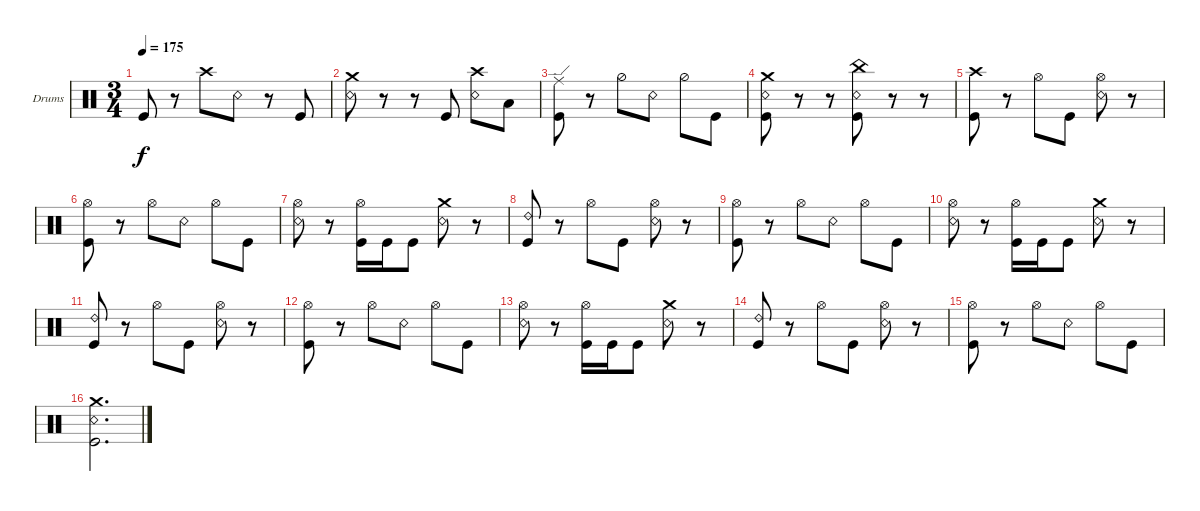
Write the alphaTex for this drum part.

\bracketExtendMode groupsimilarinstruments
\firstSystemTrackNameOrientation horizontal
\otherSystemsTrackNameOrientation horizontal
\track ("Drumkit" "Drums") {instrument percussion}
\staff {score}
\articulation defaults
\ts (3 4)
\tempo 175
\clef neutral
\ks c "Kick (hit)".8{dy f}
r.8 "Crash high (hit)".8 "Snare (rim shot)".8 r.8 "Kick (hit)".8 |
("Snare (rim shot)" "Crash medium (hit)").8 r.8 r.8 "Kick (hit)".8 ("Snare (rim shot)" "Crash high (hit)").8 "Low Tom (hit)".8 |
("Kick (hit)" "Ride (edge)").8 r.8 "Hi-Hat (half)".8 "Snare (rim shot)".8 "Hi-Hat (half)".8 "Kick (hit)".8 |
("Crash medium (hit)" "Snare (rim shot)" "Kick (hit)").8 r.8 r.8 ("China (hit)" "Snare (rim shot)" "Kick (hit)").8 r.8 r.8 |
("Kick (hit)" "Crash high (hit)").8 r.8 "Hi-Hat (open)".8 "Kick (hit)".8 ("Snare (rim shot)" "Hi-Hat (open)").8 r.8 |
("Kick (hit)" "Hi-Hat (open)").8 r.8 "Hi-Hat (open)".8 "Snare (rim shot)".8 "Hi-Hat (open)".8 "Kick (hit)".8 |
("Snare (rim shot)" "Hi-Hat (open)").8 r.8 ("Kick (hit)" "Hi-Hat (open)").16 "Kick (hit)".16 "Kick (hit)".8 ("Snare (rim shot)" "Crash medium (hit)").8 r.8 |
("Kick (hit)" "Ride (bell) 2").8 r.8 "Hi-Hat (open)".8 "Kick (hit)".8 ("Snare (rim shot)" "Hi-Hat (open)").8 r.8 |
("Kick (hit)" "Hi-Hat (open)").8 r.8 "Hi-Hat (open)".8 "Snare (rim shot)".8 "Hi-Hat (open)".8 "Kick (hit)".8 |
("Snare (rim shot)" "Hi-Hat (open)").8 r.8 ("Kick (hit)" "Hi-Hat (open)").16 "Kick (hit)".16 "Kick (hit)".8 ("Snare (rim shot)" "Crash medium (hit)").8 r.8 |
("Kick (hit)" "Ride (bell) 2").8 r.8 "Hi-Hat (open)".8 "Kick (hit)".8 ("Snare (rim shot)" "Hi-Hat (open)").8 r.8 |
("Kick (hit)" "Hi-Hat (open)").8 r.8 "Hi-Hat (open)".8 "Snare (rim shot)".8 "Hi-Hat (open)".8 "Kick (hit)".8 |
("Snare (rim shot)" "Hi-Hat (open)").8 r.8 ("Kick (hit)" "Hi-Hat (open)").16 "Kick (hit)".16 "Kick (hit)".8 ("Snare (rim shot)" "Crash medium (hit)").8 r.8 |
("Kick (hit)" "Ride (bell) 2").8 r.8 "Hi-Hat (open)".8 "Kick (hit)".8 ("Snare (rim shot)" "Hi-Hat (open)").8 r.8 |
("Kick (hit)" "Hi-Hat (open)").8 r.8 "Hi-Hat (open)".8 "Snare (rim shot)".8 "Hi-Hat (open)".8 "Kick (hit)".8 |
("Snare (rim shot)" "Crash medium (hit)" "Kick (hit)").2{d}
